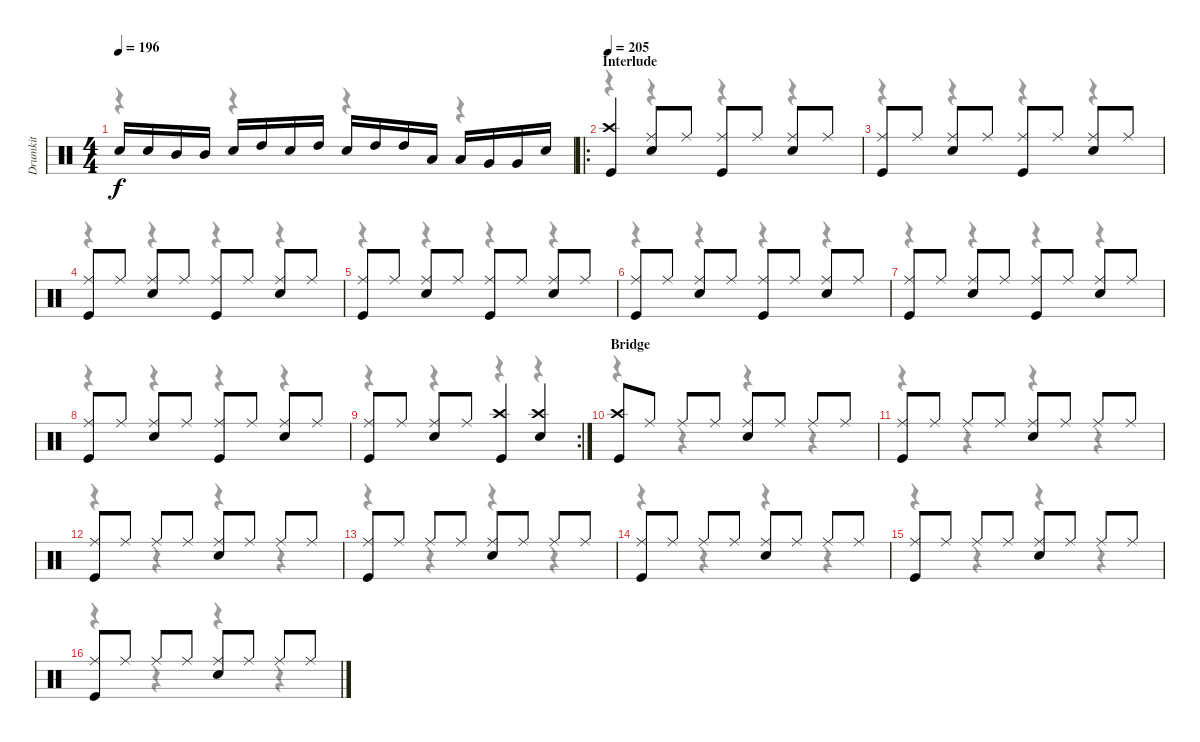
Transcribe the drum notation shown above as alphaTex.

\track ("Drumkit" "Drumkit") {instrument percussion}
\staff {score}
\articulation defaults
\voice
\ts (4 4)
\tempo 196
\clef neutral
\ks c "Snare (hit) 2".16{dy f} "Snare (hit) 2".16 "Mid Tom (hit)".16 "Mid Tom (hit)".16 "Snare (hit) 2".16 "High Tom (hit)".16 "Snare (hit) 2".16 "High Tom (hit)".16 "Snare (hit) 2".16 "High Tom (hit)".16 "High Tom (hit)".16 "Low Tom (hit)".16 "Low Tom (hit)".16 "Very Low Tom (hit)".16 "Very Low Tom (hit)".16 "Snare (hit) 2".16
|
\ro
\section ("" "Interlude")
\tempo 205
("Crash high (hit)" "Kick (hit)").4 ("Ride (middle)" "Snare (hit) 2").8 "Ride (middle)".8 ("Ride (middle)" "Kick (hit)").8 "Ride (middle)".8 ("Ride (middle)" "Snare (hit) 2").8 "Ride (middle)".8 |
("Ride (middle)" "Kick (hit)").8 "Ride (middle)".8 ("Ride (middle)" "Snare (hit) 2").8 "Ride (middle)".8 ("Ride (middle)" "Kick (hit)").8 "Ride (middle)".8 ("Ride (middle)" "Snare (hit) 2").8 "Ride (middle)".8 |
("Ride (middle)" "Kick (hit)").8 "Ride (middle)".8 ("Ride (middle)" "Snare (hit) 2").8 "Ride (middle)".8 ("Ride (middle)" "Kick (hit)").8 "Ride (middle)".8 ("Ride (middle)" "Snare (hit) 2").8 "Ride (middle)".8 |
("Ride (middle)" "Kick (hit)").8 "Ride (middle)".8 ("Ride (middle)" "Snare (hit) 2").8 "Ride (middle)".8 ("Ride (middle)" "Kick (hit)").8 "Ride (middle)".8 ("Ride (middle)" "Snare (hit) 2").8 "Ride (middle)".8 |
("Ride (middle)" "Kick (hit)").8 "Ride (middle)".8 ("Ride (middle)" "Snare (hit) 2").8 "Ride (middle)".8 ("Ride (middle)" "Kick (hit)").8 "Ride (middle)".8 ("Ride (middle)" "Snare (hit) 2").8 "Ride (middle)".8 |
("Ride (middle)" "Kick (hit)").8 "Ride (middle)".8 ("Ride (middle)" "Snare (hit) 2").8 "Ride (middle)".8 ("Ride (middle)" "Kick (hit)").8 "Ride (middle)".8 ("Ride (middle)" "Snare (hit) 2").8 "Ride (middle)".8 |
("Ride (middle)" "Kick (hit)").8 "Ride (middle)".8 ("Ride (middle)" "Snare (hit) 2").8 "Ride (middle)".8 ("Ride (middle)" "Kick (hit)").8 "Ride (middle)".8 ("Ride (middle)" "Snare (hit) 2").8 "Ride (middle)".8 |
\rc 2
("Ride (middle)" "Kick (hit)").8 "Ride (middle)".8 ("Ride (middle)" "Snare (hit) 2").8 "Ride (middle)".8 ("Crash high (hit)" "Kick (hit)").4 ("Crash high (hit)" "Snare (hit) 2").4 |
\section ("" "Bridge")
("Crash high (hit)" "Kick (hit)").8 "Ride (middle)".8 "Ride (middle)".8 "Ride (middle)".8 ("Ride (middle)" "Snare (hit) 2").8 "Ride (middle)".8 "Ride (middle)".8 "Ride (middle)".8 |
("Ride (middle)" "Kick (hit)").8 "Ride (middle)".8 "Ride (middle)".8 "Ride (middle)".8 ("Ride (middle)" "Snare (hit) 2").8 "Ride (middle)".8 "Ride (middle)".8 "Ride (middle)".8 |
("Ride (middle)" "Kick (hit)").8 "Ride (middle)".8 "Ride (middle)".8 "Ride (middle)".8 ("Ride (middle)" "Snare (hit) 2").8 "Ride (middle)".8 "Ride (middle)".8 "Ride (middle)".8 |
("Ride (middle)" "Kick (hit)").8 "Ride (middle)".8 "Ride (middle)".8 "Ride (middle)".8 ("Ride (middle)" "Snare (hit) 2").8 "Ride (middle)".8 "Ride (middle)".8 "Ride (middle)".8 |
("Ride (middle)" "Kick (hit)").8 "Ride (middle)".8 "Ride (middle)".8 "Ride (middle)".8 ("Ride (middle)" "Snare (hit) 2").8 "Ride (middle)".8 "Ride (middle)".8 "Ride (middle)".8 |
("Ride (middle)" "Kick (hit)").8 "Ride (middle)".8 "Ride (middle)".8 "Ride (middle)".8 ("Ride (middle)" "Snare (hit) 2").8 "Ride (middle)".8 "Ride (middle)".8 "Ride (middle)".8 |
("Ride (middle)" "Kick (hit)").8 "Ride (middle)".8 "Ride (middle)".8 "Ride (middle)".8 ("Ride (middle)" "Snare (hit) 2").8 "Ride (middle)".8 "Ride (middle)".8 "Ride (middle)".8
\voice
\clef neutral
\ottava regular
\simile none
\ks c
r.4{dy f} r.4 r.4 r.4 |
r.4 r.4 r.4 r.4 |
r.4 r.4 r.4 r.4 |
r.4 r.4 r.4 r.4 |
r.4 r.4 r.4 r.4 |
r.4 r.4 r.4 r.4 |
r.4 r.4 r.4 r.4 |
r.4 r.4 r.4 r.4 |
r.4 r.4 r.4 r.4 |
r.4 r.4 r.4 r.4 |
r.4 r.4 r.4 r.4 |
r.4 r.4 r.4 r.4 |
r.4 r.4 r.4 r.4 |
r.4 r.4 r.4 r.4 |
r.4 r.4 r.4 r.4 |
r.4 r.4 r.4 r.4
